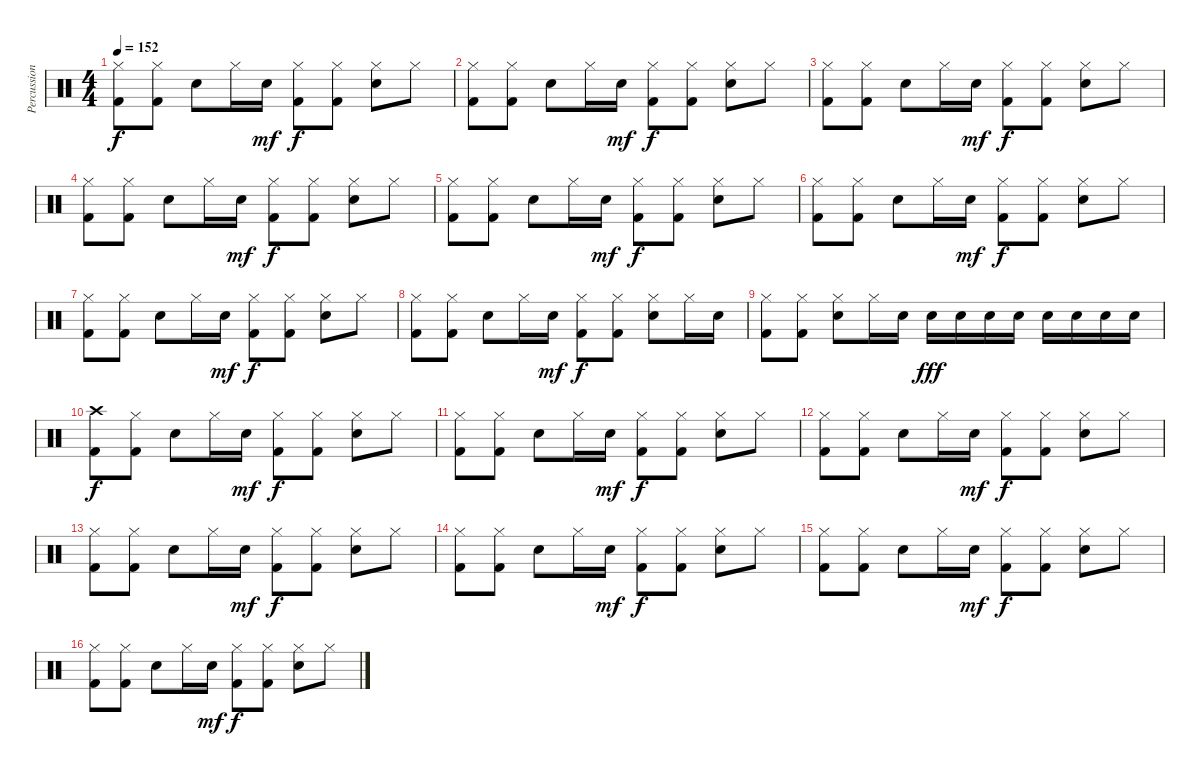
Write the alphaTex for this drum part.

\track ("Percussion" "Percussion") {instrument percussion}
\staff {score}
\articulation defaults
\ts (4 4)
\tempo 152
\clef neutral
\ks c
("Kick (hit) 2" "Hi-Hat (closed)").8{dy f} ("Kick (hit) 2" "Hi-Hat (closed)").8 "Electric Snare (hit)".8 "Hi-Hat (closed)".16 "Electric Snare (hit)".16{dy mf} ("Kick (hit) 2" "Hi-Hat (closed)").8{dy f} ("Kick (hit) 2" "Hi-Hat (closed)").8 ("Electric Snare (hit)" "Hi-Hat (closed)").8 "Hi-Hat (closed)".8 |
("Kick (hit) 2" "Hi-Hat (closed)").8 ("Kick (hit) 2" "Hi-Hat (closed)").8 "Electric Snare (hit)".8 "Hi-Hat (closed)".16 "Electric Snare (hit)".16{dy mf} ("Kick (hit) 2" "Hi-Hat (closed)").8{dy f} ("Kick (hit) 2" "Hi-Hat (closed)").8 ("Electric Snare (hit)" "Hi-Hat (closed)").8 "Hi-Hat (closed)".8 |
("Kick (hit) 2" "Hi-Hat (closed)").8 ("Kick (hit) 2" "Hi-Hat (closed)").8 "Electric Snare (hit)".8 "Hi-Hat (closed)".16 "Electric Snare (hit)".16{dy mf} ("Kick (hit) 2" "Hi-Hat (closed)").8{dy f} ("Kick (hit) 2" "Hi-Hat (closed)").8 ("Electric Snare (hit)" "Hi-Hat (closed)").8 "Hi-Hat (closed)".8 |
("Kick (hit) 2" "Hi-Hat (closed)").8 ("Kick (hit) 2" "Hi-Hat (closed)").8 "Electric Snare (hit)".8 "Hi-Hat (closed)".16 "Electric Snare (hit)".16{dy mf} ("Kick (hit) 2" "Hi-Hat (closed)").8{dy f} ("Kick (hit) 2" "Hi-Hat (closed)").8 ("Electric Snare (hit)" "Hi-Hat (closed)").8 "Hi-Hat (closed)".8 |
("Kick (hit) 2" "Hi-Hat (closed)").8 ("Kick (hit) 2" "Hi-Hat (closed)").8 "Electric Snare (hit)".8 "Hi-Hat (closed)".16 "Electric Snare (hit)".16{dy mf} ("Kick (hit) 2" "Hi-Hat (closed)").8{dy f} ("Kick (hit) 2" "Hi-Hat (closed)").8 ("Electric Snare (hit)" "Hi-Hat (closed)").8 "Hi-Hat (closed)".8 |
("Kick (hit) 2" "Hi-Hat (closed)").8 ("Kick (hit) 2" "Hi-Hat (closed)").8 "Electric Snare (hit)".8 "Hi-Hat (closed)".16 "Electric Snare (hit)".16{dy mf} ("Kick (hit) 2" "Hi-Hat (closed)").8{dy f} ("Kick (hit) 2" "Hi-Hat (closed)").8 ("Electric Snare (hit)" "Hi-Hat (closed)").8 "Hi-Hat (closed)".8 |
("Kick (hit) 2" "Hi-Hat (closed)").8 ("Kick (hit) 2" "Hi-Hat (closed)").8 "Electric Snare (hit)".8 "Hi-Hat (closed)".16 "Electric Snare (hit)".16{dy mf} ("Kick (hit) 2" "Hi-Hat (closed)").8{dy f} ("Kick (hit) 2" "Hi-Hat (closed)").8 ("Electric Snare (hit)" "Hi-Hat (closed)").8 "Hi-Hat (closed)".8 |
("Kick (hit) 2" "Hi-Hat (closed)").8 ("Kick (hit) 2" "Hi-Hat (closed)").8 "Electric Snare (hit)".8 "Hi-Hat (closed)".16 "Electric Snare (hit)".16{dy mf} ("Kick (hit) 2" "Hi-Hat (closed)").8{dy f} ("Kick (hit) 2" "Hi-Hat (closed)").8 ("Electric Snare (hit)" "Hi-Hat (closed)").8 "Hi-Hat (closed)".16 "Electric Snare (hit)".16 |
("Kick (hit) 2" "Hi-Hat (closed)").8 ("Kick (hit) 2" "Hi-Hat (closed)").8 ("Electric Snare (hit)" "Hi-Hat (closed)").8 "Hi-Hat (closed)".16 "Snare (hit) 2".16 "Snare (hit) 2".16{dy fff} "Snare (hit) 2".16 "Snare (hit) 2".16 "Snare (hit) 2".16 "Snare (hit) 2".16 "Snare (hit) 2".16 "Snare (hit) 2".16 "Snare (hit) 2".16 |
("Kick (hit) 2" "Crash high (hit)").8{dy f} ("Kick (hit) 2" "Hi-Hat (closed)").8 "Electric Snare (hit)".8 "Hi-Hat (closed)".16 "Electric Snare (hit)".16{dy mf} ("Kick (hit) 2" "Hi-Hat (closed)").8{dy f} ("Kick (hit) 2" "Hi-Hat (closed)").8 ("Electric Snare (hit)" "Hi-Hat (closed)").8 "Hi-Hat (closed)".8 |
("Kick (hit) 2" "Hi-Hat (closed)").8 ("Kick (hit) 2" "Hi-Hat (closed)").8 "Electric Snare (hit)".8 "Hi-Hat (closed)".16 "Electric Snare (hit)".16{dy mf} ("Kick (hit) 2" "Hi-Hat (closed)").8{dy f} ("Kick (hit) 2" "Hi-Hat (closed)").8 ("Electric Snare (hit)" "Hi-Hat (closed)").8 "Hi-Hat (closed)".8 |
("Kick (hit) 2" "Hi-Hat (closed)").8 ("Kick (hit) 2" "Hi-Hat (closed)").8 "Electric Snare (hit)".8 "Hi-Hat (closed)".16 "Electric Snare (hit)".16{dy mf} ("Kick (hit) 2" "Hi-Hat (closed)").8{dy f} ("Kick (hit) 2" "Hi-Hat (closed)").8 ("Electric Snare (hit)" "Hi-Hat (closed)").8 "Hi-Hat (closed)".8 |
("Kick (hit) 2" "Hi-Hat (closed)").8 ("Kick (hit) 2" "Hi-Hat (closed)").8 "Electric Snare (hit)".8 "Hi-Hat (closed)".16 "Electric Snare (hit)".16{dy mf} ("Kick (hit) 2" "Hi-Hat (closed)").8{dy f} ("Kick (hit) 2" "Hi-Hat (closed)").8 ("Electric Snare (hit)" "Hi-Hat (closed)").8 "Hi-Hat (closed)".8 |
("Kick (hit) 2" "Hi-Hat (closed)").8 ("Kick (hit) 2" "Hi-Hat (closed)").8 "Electric Snare (hit)".8 "Hi-Hat (closed)".16 "Electric Snare (hit)".16{dy mf} ("Kick (hit) 2" "Hi-Hat (closed)").8{dy f} ("Kick (hit) 2" "Hi-Hat (closed)").8 ("Electric Snare (hit)" "Hi-Hat (closed)").8 "Hi-Hat (closed)".8 |
("Kick (hit) 2" "Hi-Hat (closed)").8 ("Kick (hit) 2" "Hi-Hat (closed)").8 "Electric Snare (hit)".8 "Hi-Hat (closed)".16 "Electric Snare (hit)".16{dy mf} ("Kick (hit) 2" "Hi-Hat (closed)").8{dy f} ("Kick (hit) 2" "Hi-Hat (closed)").8 ("Electric Snare (hit)" "Hi-Hat (closed)").8 "Hi-Hat (closed)".8 |
("Kick (hit) 2" "Hi-Hat (closed)").8 ("Kick (hit) 2" "Hi-Hat (closed)").8 "Electric Snare (hit)".8 "Hi-Hat (closed)".16 "Electric Snare (hit)".16{dy mf} ("Kick (hit) 2" "Hi-Hat (closed)").8{dy f} ("Kick (hit) 2" "Hi-Hat (closed)").8 ("Electric Snare (hit)" "Hi-Hat (closed)").8 "Hi-Hat (closed)".8
